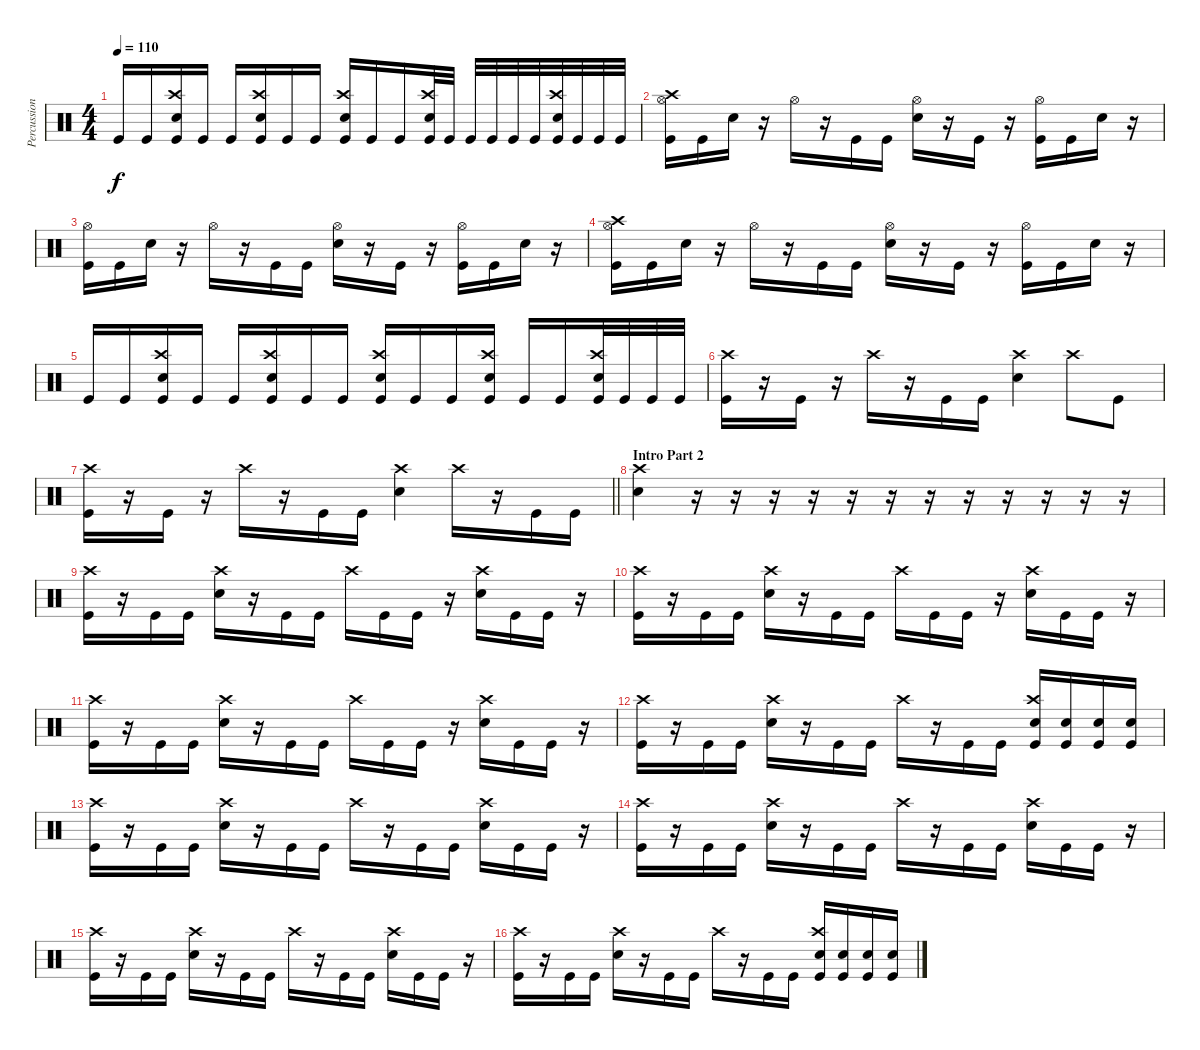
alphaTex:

\track ("Percussion" "Percussion") {instrument percussion}
\staff {score}
\articulation defaults
\ts (4 4)
\tempo 110
\clef neutral
\ks c "Kick (hit)".16{dy f} "Kick (hit)".16
("Crash high (hit)" "Snare (hit) 2" "Kick (hit)").16 "Kick (hit)".16 "Kick (hit)".16 ("Crash high (hit)" "Snare (hit) 2" "Kick (hit)").16 "Kick (hit)".16 "Kick (hit)".16 ("Crash high (hit)" "Snare (hit) 2" "Kick (hit)").16 "Kick (hit)".16 "Kick (hit)".16 ("Crash high (hit)" "Snare (hit) 2" "Kick (hit)").32 "Kick (hit)".32 "Kick (hit)".32 "Kick (hit)".32 "Kick (hit)".32 "Kick (hit)".32 ("Crash high (hit)" "Snare (hit) 2" "Kick (hit)").32 "Kick (hit)".32 "Kick (hit)".32 "Kick (hit)".32 |
("Crash high (hit)" "Hi-Hat (open)" "Kick (hit)").16 "Kick (hit)".16 "Snare (hit) 2".16 r.16 "Hi-Hat (open)".16 r.16 "Kick (hit)".16 "Kick (hit)".16 ("Hi-Hat (open)" "Snare (hit) 2").16 r.16 "Kick (hit)".16 r.16 ("Hi-Hat (open)" "Kick (hit)").16 "Kick (hit)".16 "Snare (hit) 2".16 r.16 |
("Hi-Hat (open)" "Kick (hit)").16 "Kick (hit)".16 "Snare (hit) 2".16 r.16 "Hi-Hat (open)".16 r.16 "Kick (hit)".16 "Kick (hit)".16 ("Hi-Hat (open)" "Snare (hit) 2").16 r.16 "Kick (hit)".16 r.16 ("Hi-Hat (open)" "Kick (hit)").16 "Kick (hit)".16 "Snare (hit) 2".16 r.16 |
("Crash high (hit)" "Hi-Hat (open)" "Kick (hit)").16 "Kick (hit)".16 "Snare (hit) 2".16 r.16 "Hi-Hat (open)".16 r.16 "Kick (hit)".16 "Kick (hit)".16 ("Hi-Hat (open)" "Snare (hit) 2").16 r.16 "Kick (hit)".16 r.16 ("Hi-Hat (open)" "Kick (hit)").16 "Kick (hit)".16 "Snare (hit) 2".16 r.16 |
"Kick (hit)".16 "Kick (hit)".16 ("Crash high (hit)" "Snare (hit) 2" "Kick (hit)").16 "Kick (hit)".16 "Kick (hit)".16 ("Crash high (hit)" "Snare (hit) 2" "Kick (hit)").16 "Kick (hit)".16 "Kick (hit)".16 ("Crash high (hit)" "Snare (hit) 2" "Kick (hit)").16 "Kick (hit)".16 "Kick (hit)".16 ("Crash high (hit)" "Snare (hit) 2" "Kick (hit)").16 "Kick (hit)".16 "Kick (hit)".16 ("Crash high (hit)" "Snare (hit) 2" "Kick (hit)").32 "Kick (hit)".32 "Kick (hit)".32 "Kick (hit)".32 |
("Crash high (hit)" "Kick (hit)").16 r.16 "Kick (hit)".16 r.16 "Crash high (hit)".16 r.16 "Kick (hit)".16 "Kick (hit)".16 ("Crash high (hit)" "Snare (hit) 2").4 "Crash high (hit)".8 "Kick (hit)".8 |
\barLineRight lightlight
("Crash high (hit)" "Kick (hit)").16 r.16 "Kick (hit)".16 r.16 "Crash high (hit)".16 r.16 "Kick (hit)".16 "Kick (hit)".16 ("Crash high (hit)" "Snare (hit) 2").4 "Crash high (hit)".16 r.16 "Kick (hit)".16 "Kick (hit)".16 |
\section ("" "Intro Part 2")
("Crash high (hit)" "Snare (hit) 2").4 r.16 r.16 r.16 r.16 r.16 r.16 r.16 r.16 r.16 r.16 r.16 r.16 |
("Crash high (hit)" "Kick (hit)").16 r.16 "Kick (hit)".16 "Kick (hit)".16 ("Crash high (hit)" "Snare (hit) 2").16 r.16 "Kick (hit)".16 "Kick (hit)".16 "Crash high (hit)".16 "Kick (hit)".16 "Kick (hit)".16 r.16 ("Crash high (hit)" "Snare (hit) 2").16 "Kick (hit)".16 "Kick (hit)".16 r.16 |
("Crash high (hit)" "Kick (hit)").16 r.16 "Kick (hit)".16 "Kick (hit)".16 ("Crash high (hit)" "Snare (hit) 2").16 r.16 "Kick (hit)".16 "Kick (hit)".16 "Crash high (hit)".16 "Kick (hit)".16 "Kick (hit)".16 r.16 ("Crash high (hit)" "Snare (hit) 2").16 "Kick (hit)".16 "Kick (hit)".16 r.16 |
("Crash high (hit)" "Kick (hit)").16 r.16 "Kick (hit)".16 "Kick (hit)".16 ("Crash high (hit)" "Snare (hit) 2").16 r.16 "Kick (hit)".16 "Kick (hit)".16 "Crash high (hit)".16 "Kick (hit)".16 "Kick (hit)".16 r.16 ("Crash high (hit)" "Snare (hit) 2").16 "Kick (hit)".16 "Kick (hit)".16 r.16 |
("Crash high (hit)" "Kick (hit)").16 r.16 "Kick (hit)".16 "Kick (hit)".16 ("Crash high (hit)" "Snare (hit) 2").16 r.16 "Kick (hit)".16 "Kick (hit)".16 "Crash high (hit)".16 r.16 "Kick (hit)".16 "Kick (hit)".16 ("Crash high (hit)" "Snare (hit) 2" "Kick (hit)").16 ("Snare (hit) 2" "Kick (hit)").16 ("Snare (hit) 2" "Kick (hit)").16 ("Snare (hit) 2" "Kick (hit)").16 |
("Crash high (hit)" "Kick (hit)").16 r.16 "Kick (hit)".16 "Kick (hit)".16 ("Crash high (hit)" "Snare (hit) 2").16 r.16 "Kick (hit)".16 "Kick (hit)".16 "Crash high (hit)".16 r.16 "Kick (hit)".16 "Kick (hit)".16 ("Crash high (hit)" "Snare (hit) 2").16 "Kick (hit)".16 "Kick (hit)".16 r.16 |
("Crash high (hit)" "Kick (hit)").16 r.16 "Kick (hit)".16 "Kick (hit)".16 ("Crash high (hit)" "Snare (hit) 2").16 r.16 "Kick (hit)".16 "Kick (hit)".16 "Crash high (hit)".16 r.16 "Kick (hit)".16 "Kick (hit)".16 ("Crash high (hit)" "Snare (hit) 2").16 "Kick (hit)".16 "Kick (hit)".16 r.16 |
("Crash high (hit)" "Kick (hit)").16 r.16 "Kick (hit)".16 "Kick (hit)".16 ("Crash high (hit)" "Snare (hit) 2").16 r.16 "Kick (hit)".16 "Kick (hit)".16 "Crash high (hit)".16 r.16 "Kick (hit)".16 "Kick (hit)".16 ("Crash high (hit)" "Snare (hit) 2").16 "Kick (hit)".16 "Kick (hit)".16 r.16 |
("Crash high (hit)" "Kick (hit)").16 r.16 "Kick (hit)".16 "Kick (hit)".16 ("Crash high (hit)" "Snare (hit) 2").16 r.16 "Kick (hit)".16 "Kick (hit)".16 "Crash high (hit)".16 r.16 "Kick (hit)".16 "Kick (hit)".16 ("Crash high (hit)" "Snare (hit) 2" "Kick (hit)").16 ("Snare (hit) 2" "Kick (hit)").16 ("Snare (hit) 2" "Kick (hit)").16 ("Snare (hit) 2" "Kick (hit)").16
